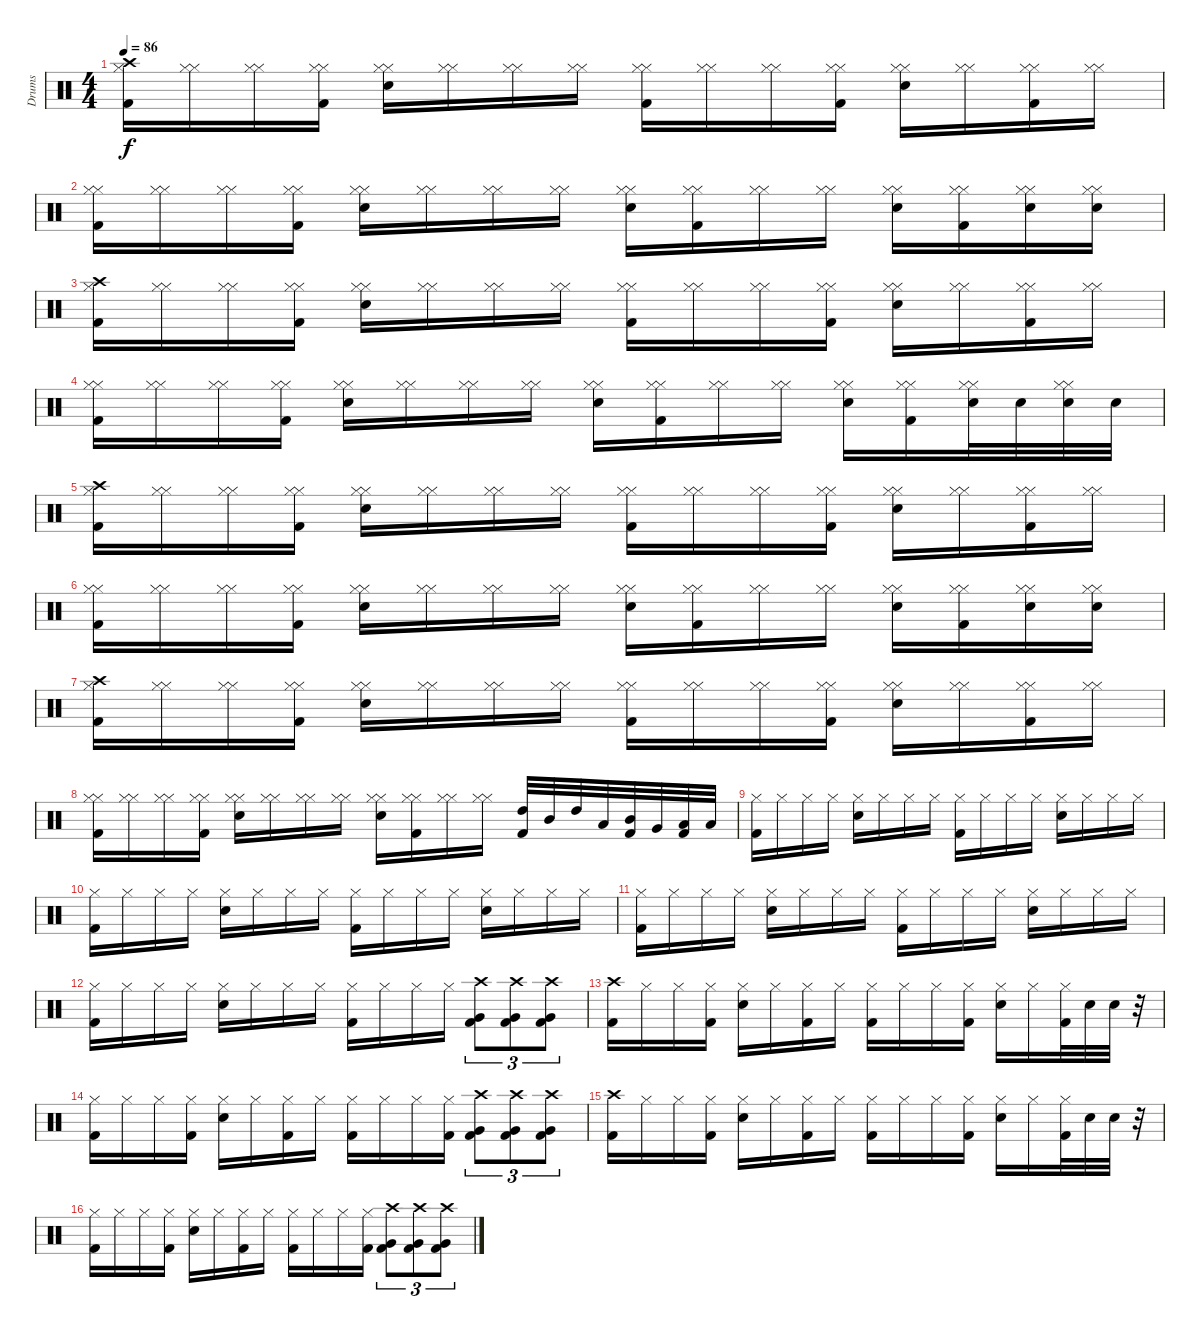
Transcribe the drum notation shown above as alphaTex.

\track ("Drums" "Drums") {instrument percussion}
\staff {score}
\articulation defaults
\ts (4 4)
\tempo 86
\clef neutral
\ks c
("Crash high (hit)" "Hi-Hat (closed)" "Kick (hit) 2").16{dy f} ("Hi-Hat (closed)" "Hi-Hat (closed)").16 ("Hi-Hat (closed)" "Hi-Hat (closed)").16 ("Hi-Hat (closed)" "Hi-Hat (closed)" "Kick (hit) 2").16 ("Hi-Hat (closed)" "Hi-Hat (closed)" "Electric Snare (hit)").16 ("Hi-Hat (closed)" "Hi-Hat (closed)").16 ("Hi-Hat (closed)" "Hi-Hat (closed)").16 ("Hi-Hat (closed)" "Hi-Hat (closed)").16 ("Hi-Hat (closed)" "Hi-Hat (closed)" "Kick (hit) 2").16 ("Hi-Hat (closed)" "Hi-Hat (closed)").16 ("Hi-Hat (closed)" "Hi-Hat (closed)").16 ("Hi-Hat (closed)" "Hi-Hat (closed)" "Kick (hit) 2").16 ("Hi-Hat (closed)" "Hi-Hat (closed)" "Electric Snare (hit)").16 ("Hi-Hat (closed)" "Hi-Hat (closed)").16 ("Hi-Hat (closed)" "Hi-Hat (closed)" "Kick (hit) 2").16 ("Hi-Hat (closed)" "Hi-Hat (closed)").16 |
("Hi-Hat (closed)" "Hi-Hat (closed)" "Kick (hit) 2").16 ("Hi-Hat (closed)" "Hi-Hat (closed)").16 ("Hi-Hat (closed)" "Hi-Hat (closed)").16 ("Hi-Hat (closed)" "Hi-Hat (closed)" "Kick (hit) 2").16 ("Hi-Hat (closed)" "Hi-Hat (closed)" "Electric Snare (hit)").16 ("Hi-Hat (closed)" "Hi-Hat (closed)").16 ("Hi-Hat (closed)" "Hi-Hat (closed)").16 ("Hi-Hat (closed)" "Hi-Hat (closed)").16 ("Hi-Hat (closed)" "Hi-Hat (closed)" "Electric Snare (hit)").16 ("Hi-Hat (closed)" "Hi-Hat (closed)" "Kick (hit) 2").16 ("Hi-Hat (closed)" "Hi-Hat (closed)").16 ("Hi-Hat (closed)" "Hi-Hat (closed)").16 ("Hi-Hat (closed)" "Hi-Hat (closed)" "Electric Snare (hit)").16 ("Hi-Hat (closed)" "Hi-Hat (closed)" "Kick (hit) 2").16 ("Hi-Hat (closed)" "Hi-Hat (closed)" "Electric Snare (hit)").16 ("Hi-Hat (closed)" "Hi-Hat (closed)" "Electric Snare (hit)").16 |
("Crash high (hit)" "Hi-Hat (closed)" "Kick (hit) 2").16 ("Hi-Hat (closed)" "Hi-Hat (closed)").16 ("Hi-Hat (closed)" "Hi-Hat (closed)").16 ("Hi-Hat (closed)" "Hi-Hat (closed)" "Kick (hit) 2").16 ("Hi-Hat (closed)" "Hi-Hat (closed)" "Electric Snare (hit)").16 ("Hi-Hat (closed)" "Hi-Hat (closed)").16 ("Hi-Hat (closed)" "Hi-Hat (closed)").16 ("Hi-Hat (closed)" "Hi-Hat (closed)").16 ("Hi-Hat (closed)" "Hi-Hat (closed)" "Kick (hit) 2").16 ("Hi-Hat (closed)" "Hi-Hat (closed)").16 ("Hi-Hat (closed)" "Hi-Hat (closed)").16 ("Hi-Hat (closed)" "Hi-Hat (closed)" "Kick (hit) 2").16 ("Hi-Hat (closed)" "Hi-Hat (closed)" "Electric Snare (hit)").16 ("Hi-Hat (closed)" "Hi-Hat (closed)").16 ("Hi-Hat (closed)" "Hi-Hat (closed)" "Kick (hit) 2").16 ("Hi-Hat (closed)" "Hi-Hat (closed)").16 |
("Hi-Hat (closed)" "Hi-Hat (closed)" "Kick (hit) 2").16 ("Hi-Hat (closed)" "Hi-Hat (closed)").16 ("Hi-Hat (closed)" "Hi-Hat (closed)").16 ("Hi-Hat (closed)" "Hi-Hat (closed)" "Kick (hit) 2").16 ("Hi-Hat (closed)" "Hi-Hat (closed)" "Electric Snare (hit)").16 ("Hi-Hat (closed)" "Hi-Hat (closed)").16 ("Hi-Hat (closed)" "Hi-Hat (closed)").16 ("Hi-Hat (closed)" "Hi-Hat (closed)").16 ("Hi-Hat (closed)" "Hi-Hat (closed)" "Electric Snare (hit)").16 ("Hi-Hat (closed)" "Hi-Hat (closed)" "Kick (hit) 2").16 ("Hi-Hat (closed)" "Hi-Hat (closed)").16 ("Hi-Hat (closed)" "Hi-Hat (closed)").16 ("Hi-Hat (closed)" "Hi-Hat (closed)" "Electric Snare (hit)").16 ("Hi-Hat (closed)" "Hi-Hat (closed)" "Kick (hit) 2").16 ("Hi-Hat (closed)" "Hi-Hat (closed)" "Electric Snare (hit)").32 "Electric Snare (hit)".32 ("Hi-Hat (closed)" "Hi-Hat (closed)" "Electric Snare (hit)").32 "Electric Snare (hit)".32 |
("Crash high (hit)" "Hi-Hat (closed)" "Kick (hit) 2").16 ("Hi-Hat (closed)" "Hi-Hat (closed)").16 ("Hi-Hat (closed)" "Hi-Hat (closed)").16 ("Hi-Hat (closed)" "Hi-Hat (closed)" "Kick (hit) 2").16 ("Hi-Hat (closed)" "Hi-Hat (closed)" "Electric Snare (hit)").16 ("Hi-Hat (closed)" "Hi-Hat (closed)").16 ("Hi-Hat (closed)" "Hi-Hat (closed)").16 ("Hi-Hat (closed)" "Hi-Hat (closed)").16 ("Hi-Hat (closed)" "Hi-Hat (closed)" "Kick (hit) 2").16 ("Hi-Hat (closed)" "Hi-Hat (closed)").16 ("Hi-Hat (closed)" "Hi-Hat (closed)").16 ("Hi-Hat (closed)" "Hi-Hat (closed)" "Kick (hit) 2").16 ("Hi-Hat (closed)" "Hi-Hat (closed)" "Electric Snare (hit)").16 ("Hi-Hat (closed)" "Hi-Hat (closed)").16 ("Hi-Hat (closed)" "Hi-Hat (closed)" "Kick (hit) 2").16 ("Hi-Hat (closed)" "Hi-Hat (closed)").16 |
("Hi-Hat (closed)" "Hi-Hat (closed)" "Kick (hit) 2").16 ("Hi-Hat (closed)" "Hi-Hat (closed)").16 ("Hi-Hat (closed)" "Hi-Hat (closed)").16 ("Hi-Hat (closed)" "Hi-Hat (closed)" "Kick (hit) 2").16 ("Hi-Hat (closed)" "Hi-Hat (closed)" "Electric Snare (hit)").16 ("Hi-Hat (closed)" "Hi-Hat (closed)").16 ("Hi-Hat (closed)" "Hi-Hat (closed)").16 ("Hi-Hat (closed)" "Hi-Hat (closed)").16 ("Hi-Hat (closed)" "Hi-Hat (closed)" "Electric Snare (hit)").16 ("Hi-Hat (closed)" "Hi-Hat (closed)" "Kick (hit) 2").16 ("Hi-Hat (closed)" "Hi-Hat (closed)").16 ("Hi-Hat (closed)" "Hi-Hat (closed)").16 ("Hi-Hat (closed)" "Hi-Hat (closed)" "Electric Snare (hit)").16 ("Hi-Hat (closed)" "Hi-Hat (closed)" "Kick (hit) 2").16 ("Hi-Hat (closed)" "Hi-Hat (closed)" "Electric Snare (hit)").16 ("Hi-Hat (closed)" "Hi-Hat (closed)" "Electric Snare (hit)").16 |
("Crash high (hit)" "Hi-Hat (closed)" "Kick (hit) 2").16 ("Hi-Hat (closed)" "Hi-Hat (closed)").16 ("Hi-Hat (closed)" "Hi-Hat (closed)").16 ("Hi-Hat (closed)" "Hi-Hat (closed)" "Kick (hit) 2").16 ("Hi-Hat (closed)" "Hi-Hat (closed)" "Electric Snare (hit)").16 ("Hi-Hat (closed)" "Hi-Hat (closed)").16 ("Hi-Hat (closed)" "Hi-Hat (closed)").16 ("Hi-Hat (closed)" "Hi-Hat (closed)").16 ("Hi-Hat (closed)" "Hi-Hat (closed)" "Kick (hit) 2").16 ("Hi-Hat (closed)" "Hi-Hat (closed)").16 ("Hi-Hat (closed)" "Hi-Hat (closed)").16 ("Hi-Hat (closed)" "Hi-Hat (closed)" "Kick (hit) 2").16 ("Hi-Hat (closed)" "Hi-Hat (closed)" "Electric Snare (hit)").16 ("Hi-Hat (closed)" "Hi-Hat (closed)").16 ("Hi-Hat (closed)" "Hi-Hat (closed)" "Kick (hit) 2").16 ("Hi-Hat (closed)" "Hi-Hat (closed)").16 |
("Hi-Hat (closed)" "Hi-Hat (closed)" "Kick (hit) 2").16 ("Hi-Hat (closed)" "Hi-Hat (closed)").16 ("Hi-Hat (closed)" "Hi-Hat (closed)").16 ("Hi-Hat (closed)" "Hi-Hat (closed)" "Kick (hit) 2").16 ("Hi-Hat (closed)" "Hi-Hat (closed)" "Electric Snare (hit)").16 ("Hi-Hat (closed)" "Hi-Hat (closed)").16 ("Hi-Hat (closed)" "Hi-Hat (closed)").16 ("Hi-Hat (closed)" "Hi-Hat (closed)").16 ("Hi-Hat (closed)" "Hi-Hat (closed)" "Electric Snare (hit)").16 ("Hi-Hat (closed)" "Hi-Hat (closed)" "Kick (hit) 2").16 ("Hi-Hat (closed)" "Hi-Hat (closed)").16 ("Hi-Hat (closed)" "Hi-Hat (closed)").16 ("High Tom (hit)" "Kick (hit) 2").32 "Mid Tom (hit)".32 "High Tom (hit)".32 "Low Tom (hit)".32 ("Mid Tom (hit)" "Kick (hit) 2").32 "Very Low Tom (hit)".32 ("Low Tom (hit)" "Kick (hit) 2").32 "Low Floor Tom (hit)".32 |
("Hi-Hat (closed)" "Kick (hit) 2").16 "Hi-Hat (closed)".16 "Hi-Hat (closed)".16 "Hi-Hat (closed)".16 ("Hi-Hat (closed)" "Electric Snare (hit)").16 "Hi-Hat (closed)".16 "Hi-Hat (closed)".16 "Hi-Hat (closed)".16 ("Hi-Hat (closed)" "Kick (hit) 2").16 "Hi-Hat (closed)".16 "Hi-Hat (closed)".16 "Hi-Hat (closed)".16 ("Hi-Hat (closed)" "Electric Snare (hit)").16 "Hi-Hat (closed)".16 "Hi-Hat (closed)".16 "Hi-Hat (closed)".16 |
("Hi-Hat (closed)" "Kick (hit) 2").16 "Hi-Hat (closed)".16 "Hi-Hat (closed)".16 "Hi-Hat (closed)".16 ("Hi-Hat (closed)" "Electric Snare (hit)").16 "Hi-Hat (closed)".16 "Hi-Hat (closed)".16 "Hi-Hat (closed)".16 ("Hi-Hat (closed)" "Kick (hit) 2").16 "Hi-Hat (closed)".16 "Hi-Hat (closed)".16 "Hi-Hat (closed)".16 ("Hi-Hat (closed)" "Electric Snare (hit)").16 "Hi-Hat (closed)".16 "Hi-Hat (closed)".16 "Hi-Hat (closed)".16 |
("Hi-Hat (closed)" "Kick (hit) 2").16 "Hi-Hat (closed)".16 "Hi-Hat (closed)".16 "Hi-Hat (closed)".16 ("Hi-Hat (closed)" "Electric Snare (hit)").16 "Hi-Hat (closed)".16 "Hi-Hat (closed)".16 "Hi-Hat (closed)".16 ("Hi-Hat (closed)" "Kick (hit) 2").16 "Hi-Hat (closed)".16 "Hi-Hat (closed)".16 "Hi-Hat (closed)".16 ("Hi-Hat (closed)" "Electric Snare (hit)").16 "Hi-Hat (closed)".16 "Hi-Hat (closed)".16 "Hi-Hat (closed)".16 |
("Hi-Hat (closed)" "Kick (hit) 2").16 "Hi-Hat (closed)".16 "Hi-Hat (closed)".16 "Hi-Hat (closed)".16 ("Hi-Hat (closed)" "Electric Snare (hit)").16 "Hi-Hat (closed)".16 "Hi-Hat (closed)".16 "Hi-Hat (closed)".16 ("Hi-Hat (closed)" "Kick (hit) 2").16 "Hi-Hat (closed)".16 "Hi-Hat (closed)".16 "Hi-Hat (closed)".16 ("Crash high (hit)" "Very Low Tom (hit)" "Kick (hit) 2").8{tu (3 2)} ("Crash high (hit)" "Very Low Tom (hit)" "Kick (hit) 2").8{tu (3 2)} ("Crash high (hit)" "Very Low Tom (hit)" "Kick (hit) 2").8{tu (3 2)} |
("Crash high (hit)" "Kick (hit) 2").16 "Hi-Hat (closed)".16 "Hi-Hat (closed)".16 ("Hi-Hat (closed)" "Kick (hit) 2").16 ("Hi-Hat (closed)" "Electric Snare (hit)").16 "Hi-Hat (closed)".16 ("Hi-Hat (closed)" "Kick (hit) 2").16 "Hi-Hat (closed)".16 ("Hi-Hat (closed)" "Kick (hit) 2").16 "Hi-Hat (closed)".16 "Hi-Hat (closed)".16 ("Hi-Hat (closed)" "Kick (hit) 2").16 ("Hi-Hat (closed)" "Electric Snare (hit)").16 "Hi-Hat (closed)".16 ("Hi-Hat (closed)" "Kick (hit) 2").32 "Electric Snare (hit)".32 "Electric Snare (hit)".32 r.32 |
("Hi-Hat (closed)" "Kick (hit) 2").16 "Hi-Hat (closed)".16 "Hi-Hat (closed)".16 ("Hi-Hat (closed)" "Kick (hit) 2").16 ("Hi-Hat (closed)" "Electric Snare (hit)").16 "Hi-Hat (closed)".16 ("Hi-Hat (closed)" "Kick (hit) 2").16 "Hi-Hat (closed)".16 ("Hi-Hat (closed)" "Kick (hit) 2").16 "Hi-Hat (closed)".16 "Hi-Hat (closed)".16 ("Hi-Hat (closed)" "Kick (hit) 2").16 ("Crash high (hit)" "Very Low Tom (hit)" "Kick (hit) 2").8{tu (3 2)} ("Crash high (hit)" "Very Low Tom (hit)" "Kick (hit) 2").8{tu (3 2)} ("Crash high (hit)" "Very Low Tom (hit)" "Kick (hit) 2").8{tu (3 2)} |
("Crash high (hit)" "Kick (hit) 2").16 "Hi-Hat (closed)".16 "Hi-Hat (closed)".16 ("Hi-Hat (closed)" "Kick (hit) 2").16 ("Hi-Hat (closed)" "Electric Snare (hit)").16 "Hi-Hat (closed)".16 ("Hi-Hat (closed)" "Kick (hit) 2").16 "Hi-Hat (closed)".16 ("Hi-Hat (closed)" "Kick (hit) 2").16 "Hi-Hat (closed)".16 "Hi-Hat (closed)".16 ("Hi-Hat (closed)" "Kick (hit) 2").16 ("Hi-Hat (closed)" "Electric Snare (hit)").16 "Hi-Hat (closed)".16 ("Hi-Hat (closed)" "Kick (hit) 2").32 "Electric Snare (hit)".32 "Electric Snare (hit)".32 r.32 |
("Hi-Hat (closed)" "Kick (hit) 2").16 "Hi-Hat (closed)".16 "Hi-Hat (closed)".16 ("Hi-Hat (closed)" "Kick (hit) 2").16 ("Hi-Hat (closed)" "Electric Snare (hit)").16 "Hi-Hat (closed)".16 ("Hi-Hat (closed)" "Kick (hit) 2").16 "Hi-Hat (closed)".16 ("Hi-Hat (closed)" "Kick (hit) 2").16 "Hi-Hat (closed)".16 "Hi-Hat (closed)".16 ("Hi-Hat (closed)" "Kick (hit) 2").16 ("Crash high (hit)" "Very Low Tom (hit)" "Kick (hit) 2").8{tu (3 2)} ("Crash high (hit)" "Very Low Tom (hit)" "Kick (hit) 2").8{tu (3 2)} ("Crash high (hit)" "Very Low Tom (hit)" "Kick (hit) 2").8{tu (3 2)}
